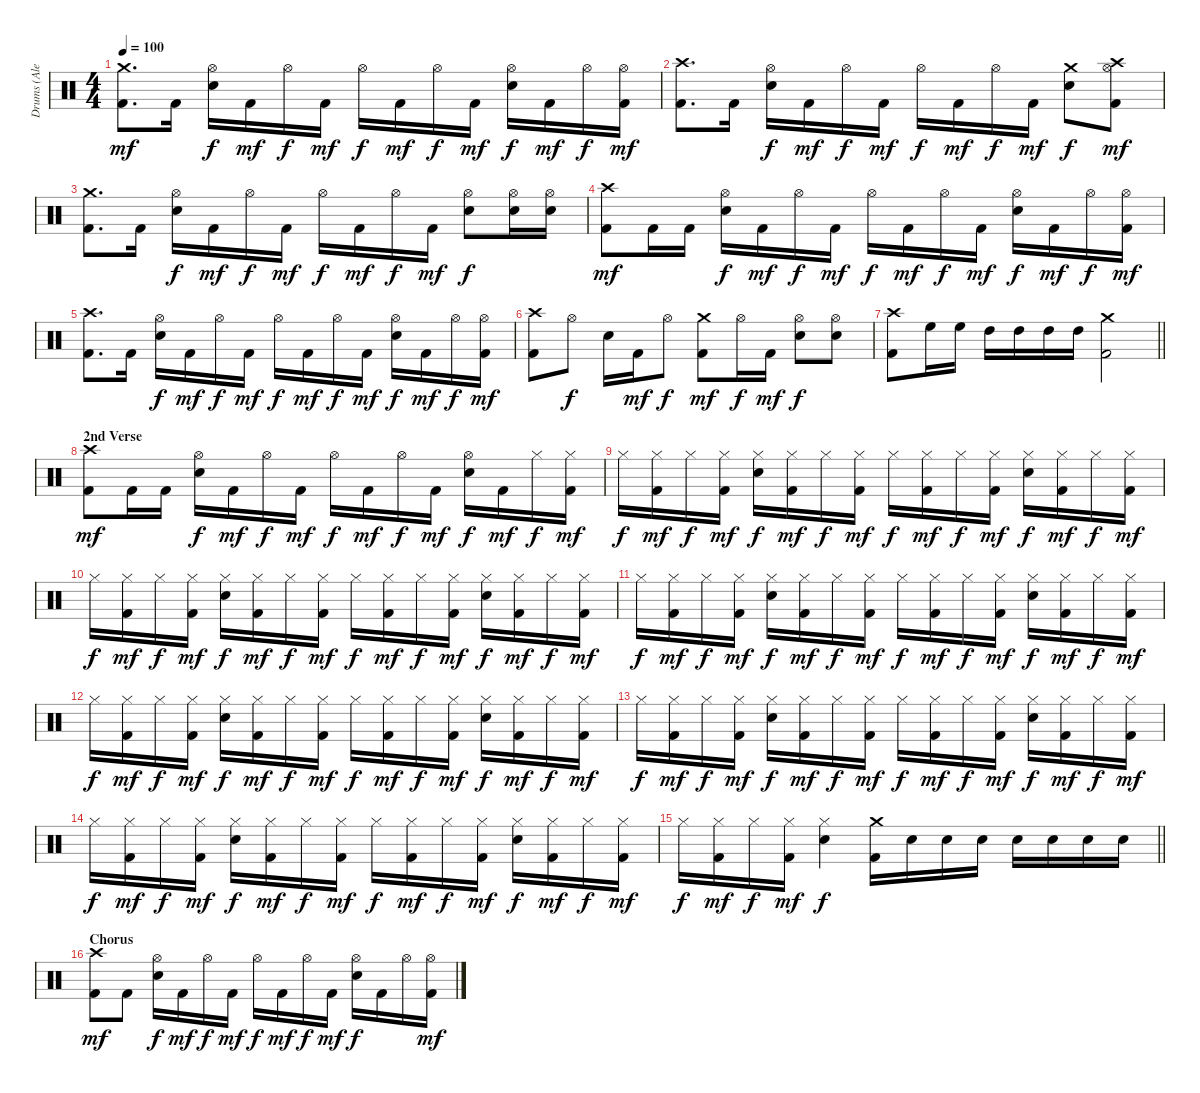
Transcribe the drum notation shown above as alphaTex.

\track ("Drums (Alex Van Halen)" "Drums (Ale") {instrument percussion}
\staff {score}
\articulation defaults
\ts (4 4)
\tempo 100
\clef neutral
\ks c
("Kick (hit) 2" "Crash medium (hit)").8{d dy mf} "Kick (hit) 2".16 ("Snare (hit) 2" "Hi-Hat (open)").16{dy f} "Kick (hit) 2".16{dy mf} "Hi-Hat (open)".16{dy f} "Kick (hit) 2".16{dy mf} "Hi-Hat (open)".16{dy f} "Kick (hit) 2".16{dy mf} "Hi-Hat (open)".16{dy f} "Kick (hit) 2".16{dy mf} ("Snare (hit) 2" "Hi-Hat (open)").16{dy f} "Kick (hit) 2".16{dy mf} "Hi-Hat (open)".16{dy f} ("Kick (hit) 2" "Hi-Hat (open)").16{dy mf} |
("Kick (hit) 2" "Crash high (hit)").8{d} "Kick (hit) 2".16 ("Snare (hit) 2" "Hi-Hat (open)").16{dy f} "Kick (hit) 2".16{dy mf} "Hi-Hat (open)".16{dy f} "Kick (hit) 2".16{dy mf} "Hi-Hat (open)".16{dy f} "Kick (hit) 2".16{dy mf} "Hi-Hat (open)".16{dy f} "Kick (hit) 2".16{dy mf} ("Snare (hit) 2" "Crash medium (hit)").8{dy f} ("Kick (hit) 2" "Hi-Hat (open)" "Crash high (hit)").8{dy mf} |
("Kick (hit) 2" "Crash medium (hit)").8{d} "Kick (hit) 2".16 ("Snare (hit) 2" "Hi-Hat (open)").16{dy f} "Kick (hit) 2".16{dy mf} "Hi-Hat (open)".16{dy f} "Kick (hit) 2".16{dy mf} "Hi-Hat (open)".16{dy f} "Kick (hit) 2".16{dy mf} "Hi-Hat (open)".16{dy f} "Kick (hit) 2".16{dy mf} ("Snare (hit) 2" "Hi-Hat (open)").8{dy f} ("Snare (hit) 2" "Hi-Hat (open)").16 ("Snare (hit) 2" "Hi-Hat (open)").16 |
("Kick (hit) 2" "Crash high (hit)").8{dy mf} "Kick (hit) 2".16 "Kick (hit) 2".16 ("Snare (hit) 2" "Hi-Hat (open)").16{dy f} "Kick (hit) 2".16{dy mf} "Hi-Hat (open)".16{dy f} "Kick (hit) 2".16{dy mf} "Hi-Hat (open)".16{dy f} "Kick (hit) 2".16{dy mf} "Hi-Hat (open)".16{dy f} "Kick (hit) 2".16{dy mf} ("Snare (hit) 2" "Hi-Hat (open)").16{dy f} "Kick (hit) 2".16{dy mf} "Hi-Hat (open)".16{dy f} ("Kick (hit) 2" "Hi-Hat (open)").16{dy mf} |
("Kick (hit) 2" "Crash high (hit)").8{d} "Kick (hit) 2".16 ("Snare (hit) 2" "Hi-Hat (open)").16{dy f} "Kick (hit) 2".16{dy mf} "Hi-Hat (open)".16{dy f} "Kick (hit) 2".16{dy mf} "Hi-Hat (open)".16{dy f} "Kick (hit) 2".16{dy mf} "Hi-Hat (open)".16{dy f} "Kick (hit) 2".16{dy mf} ("Snare (hit) 2" "Hi-Hat (open)").16{dy f} "Kick (hit) 2".16{dy mf} "Hi-Hat (open)".16{dy f} ("Kick (hit) 2" "Hi-Hat (open)").16{dy mf} |
("Kick (hit) 2" "Crash high (hit)").8 "Hi-Hat (open)".8{dy f} "Snare (hit) 2".16 "Kick (hit) 2".16{dy mf} "Hi-Hat (open)".8{dy f} ("Kick (hit) 2" "Crash medium (hit)").8{dy mf} "Hi-Hat (open)".16{dy f} "Kick (hit) 2".16{dy mf} ("Snare (hit) 2" "Hi-Hat (open)").8{dy f} ("Snare (hit) 2" "Hi-Hat (open)").8 |
\barLineRight lightlight
("Kick (hit) 2" "Crash high (hit)").8 "High Floor Tom (hit)".16 "High Floor Tom (hit)".16 "High Tom (hit)".16 "High Tom (hit)".16 "High Tom (hit)".16 "High Tom (hit)".16 ("Kick (hit) 2" "Crash medium (hit)").2 |
\section ("" "2nd Verse")
("Kick (hit) 2" "Crash high (hit)").8{dy mf} "Kick (hit) 2".16 "Kick (hit) 2".16 ("Snare (hit) 2" "Hi-Hat (open)").16{dy f} "Kick (hit) 2".16{dy mf} "Hi-Hat (open)".16{dy f} "Kick (hit) 2".16{dy mf} "Hi-Hat (open)".16{dy f} "Kick (hit) 2".16{dy mf} "Hi-Hat (open)".16{dy f} "Kick (hit) 2".16{dy mf} ("Snare (hit) 2" "Hi-Hat (open)").16{dy f} "Kick (hit) 2".16{dy mf} "Hi-Hat (closed)".16{dy f} ("Kick (hit) 2" "Hi-Hat (closed)").16{dy mf} |
"Hi-Hat (closed)".16{dy f} ("Kick (hit) 2" "Hi-Hat (closed)").16{dy mf} "Hi-Hat (closed)".16{dy f} ("Kick (hit) 2" "Hi-Hat (closed)").16{dy mf} ("Snare (hit) 2" "Hi-Hat (closed)").16{dy f} ("Kick (hit) 2" "Hi-Hat (closed)").16{dy mf} "Hi-Hat (closed)".16{dy f} ("Kick (hit) 2" "Hi-Hat (closed)").16{dy mf} "Hi-Hat (closed)".16{dy f} ("Kick (hit) 2" "Hi-Hat (closed)").16{dy mf} "Hi-Hat (closed)".16{dy f} ("Kick (hit) 2" "Hi-Hat (closed)").16{dy mf} ("Snare (hit) 2" "Hi-Hat (closed)").16{dy f} ("Kick (hit) 2" "Hi-Hat (closed)").16{dy mf} "Hi-Hat (closed)".16{dy f} ("Kick (hit) 2" "Hi-Hat (closed)").16{dy mf} |
"Hi-Hat (closed)".16{dy f} ("Kick (hit) 2" "Hi-Hat (closed)").16{dy mf} "Hi-Hat (closed)".16{dy f} ("Kick (hit) 2" "Hi-Hat (closed)").16{dy mf} ("Snare (hit) 2" "Hi-Hat (closed)").16{dy f} ("Kick (hit) 2" "Hi-Hat (closed)").16{dy mf} "Hi-Hat (closed)".16{dy f} ("Kick (hit) 2" "Hi-Hat (closed)").16{dy mf} "Hi-Hat (closed)".16{dy f} ("Kick (hit) 2" "Hi-Hat (closed)").16{dy mf} "Hi-Hat (closed)".16{dy f} ("Kick (hit) 2" "Hi-Hat (closed)").16{dy mf} ("Snare (hit) 2" "Hi-Hat (closed)").16{dy f} ("Kick (hit) 2" "Hi-Hat (closed)").16{dy mf} "Hi-Hat (closed)".16{dy f} ("Kick (hit) 2" "Hi-Hat (closed)").16{dy mf} |
"Hi-Hat (closed)".16{dy f} ("Kick (hit) 2" "Hi-Hat (closed)").16{dy mf} "Hi-Hat (closed)".16{dy f} ("Kick (hit) 2" "Hi-Hat (closed)").16{dy mf} ("Snare (hit) 2" "Hi-Hat (closed)").16{dy f} ("Kick (hit) 2" "Hi-Hat (closed)").16{dy mf} "Hi-Hat (closed)".16{dy f} ("Kick (hit) 2" "Hi-Hat (closed)").16{dy mf} "Hi-Hat (closed)".16{dy f} ("Kick (hit) 2" "Hi-Hat (closed)").16{dy mf} "Hi-Hat (closed)".16{dy f} ("Kick (hit) 2" "Hi-Hat (closed)").16{dy mf} ("Snare (hit) 2" "Hi-Hat (closed)").16{dy f} ("Kick (hit) 2" "Hi-Hat (closed)").16{dy mf} "Hi-Hat (closed)".16{dy f} ("Kick (hit) 2" "Hi-Hat (closed)").16{dy mf} |
"Hi-Hat (closed)".16{dy f} ("Kick (hit) 2" "Hi-Hat (closed)").16{dy mf} "Hi-Hat (closed)".16{dy f} ("Kick (hit) 2" "Hi-Hat (closed)").16{dy mf} ("Snare (hit) 2" "Hi-Hat (closed)").16{dy f} ("Kick (hit) 2" "Hi-Hat (closed)").16{dy mf} "Hi-Hat (closed)".16{dy f} ("Kick (hit) 2" "Hi-Hat (closed)").16{dy mf} "Hi-Hat (closed)".16{dy f} ("Kick (hit) 2" "Hi-Hat (closed)").16{dy mf} "Hi-Hat (closed)".16{dy f} ("Kick (hit) 2" "Hi-Hat (closed)").16{dy mf} ("Snare (hit) 2" "Hi-Hat (closed)").16{dy f} ("Kick (hit) 2" "Hi-Hat (closed)").16{dy mf} "Hi-Hat (closed)".16{dy f} ("Kick (hit) 2" "Hi-Hat (closed)").16{dy mf} |
"Hi-Hat (closed)".16{dy f} ("Kick (hit) 2" "Hi-Hat (closed)").16{dy mf} "Hi-Hat (closed)".16{dy f} ("Kick (hit) 2" "Hi-Hat (closed)").16{dy mf} ("Snare (hit) 2" "Hi-Hat (closed)").16{dy f} ("Kick (hit) 2" "Hi-Hat (closed)").16{dy mf} "Hi-Hat (closed)".16{dy f} ("Kick (hit) 2" "Hi-Hat (closed)").16{dy mf} "Hi-Hat (closed)".16{dy f} ("Kick (hit) 2" "Hi-Hat (closed)").16{dy mf} "Hi-Hat (closed)".16{dy f} ("Kick (hit) 2" "Hi-Hat (closed)").16{dy mf} ("Snare (hit) 2" "Hi-Hat (closed)").16{dy f} ("Kick (hit) 2" "Hi-Hat (closed)").16{dy mf} "Hi-Hat (closed)".16{dy f} ("Kick (hit) 2" "Hi-Hat (closed)").16{dy mf} |
"Hi-Hat (closed)".16{dy f} ("Kick (hit) 2" "Hi-Hat (closed)").16{dy mf} "Hi-Hat (closed)".16{dy f} ("Kick (hit) 2" "Hi-Hat (closed)").16{dy mf} ("Snare (hit) 2" "Hi-Hat (closed)").16{dy f} ("Kick (hit) 2" "Hi-Hat (closed)").16{dy mf} "Hi-Hat (closed)".16{dy f} ("Kick (hit) 2" "Hi-Hat (closed)").16{dy mf} "Hi-Hat (closed)".16{dy f} ("Kick (hit) 2" "Hi-Hat (closed)").16{dy mf} "Hi-Hat (closed)".16{dy f} ("Kick (hit) 2" "Hi-Hat (closed)").16{dy mf} ("Snare (hit) 2" "Hi-Hat (closed)").16{dy f} ("Kick (hit) 2" "Hi-Hat (closed)").16{dy mf} "Hi-Hat (closed)".16{dy f} ("Kick (hit) 2" "Hi-Hat (closed)").16{dy mf} |
\barLineRight lightlight "Hi-Hat (closed)".16{dy f}
("Kick (hit) 2" "Hi-Hat (closed)").16{dy mf} "Hi-Hat (closed)".16{dy f} ("Kick (hit) 2" "Hi-Hat (closed)").16{dy mf} ("Snare (hit) 2" "Hi-Hat (closed)").4{dy f} ("Kick (hit) 2" "Crash medium (hit)").16 "Snare (hit) 2".16 "Snare (hit) 2".16 "Snare (hit) 2".16 "Snare (hit) 2".16 "Snare (hit) 2".16 "Snare (hit) 2".16 "Snare (hit) 2".16 |
\section ("" "Chorus")
("Kick (hit) 2" "Crash high (hit)").8{dy mf} "Kick (hit) 2".8 ("Snare (hit) 2" "Hi-Hat (open)").16{dy f} "Kick (hit) 2".16{dy mf} "Hi-Hat (open)".16{dy f} "Kick (hit) 2".16{dy mf} "Hi-Hat (open)".16{dy f} "Kick (hit) 2".16{dy mf} "Hi-Hat (open)".16{dy f} "Kick (hit) 2".16{dy mf} ("Snare (hit) 2" "Hi-Hat (open)").16{dy f} "Kick (hit) 2".16 "Hi-Hat (open)".16 ("Kick (hit) 2" "Hi-Hat (open)").16{dy mf}
